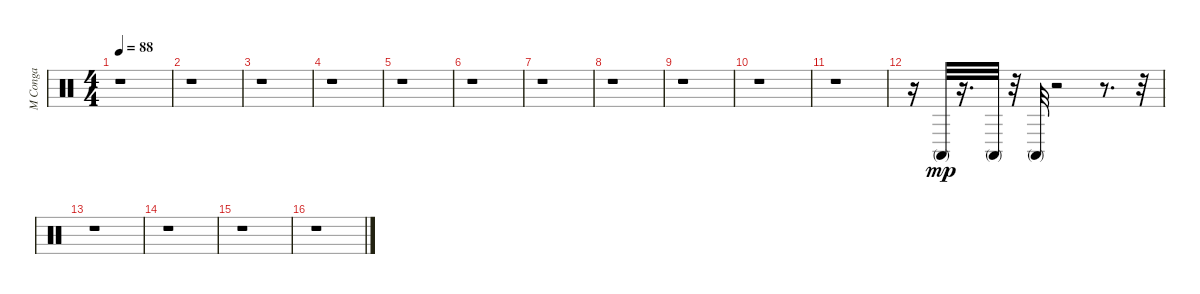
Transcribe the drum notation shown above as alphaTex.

\track ("M Conga" "M Conga") {instrument percussion}
\staff {score}
\articulation defaults
\ts (4 4)
\tempo 88
\clef neutral
\ks c
r.1{dy mp} |
r.1 |
r.1 |
r.1 |
r.1 |
r.1 |
r.1 |
r.1 |
r.1 |
r.1 |
r.1 |
r.16 "Conga high (mute)".32 r.16{d} "Conga high (mute)".32 r.32 "Conga high (mute)".32 r.2 r.8{d} r.32 |
r.1 |
r.1 |
r.1 |
r.1
